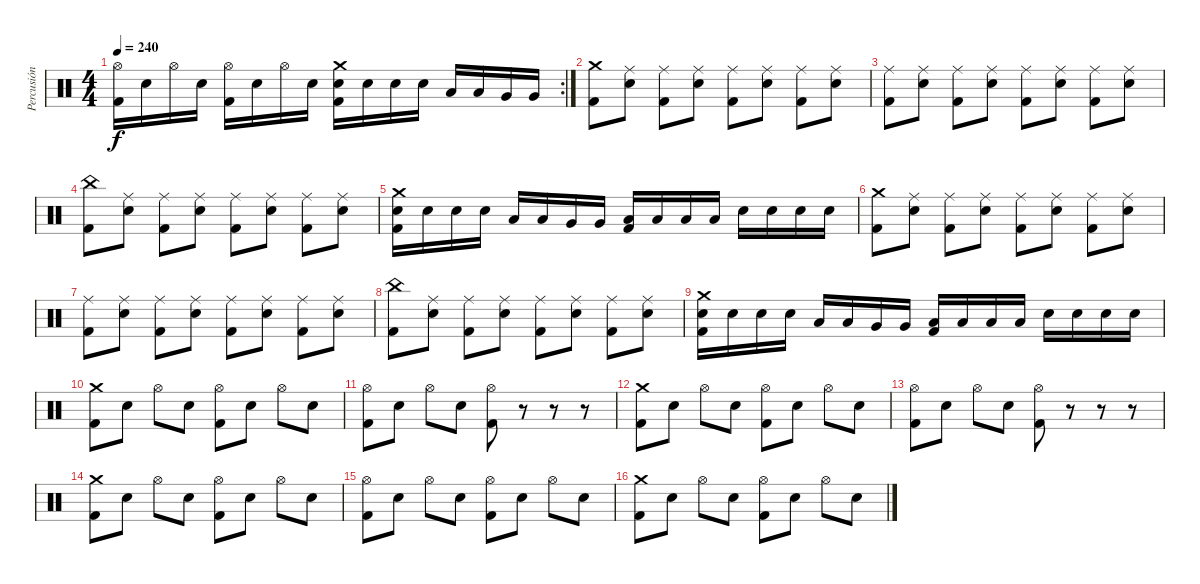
\track ("Percusión" "Percusión") {instrument percussion}
\staff {score}
\articulation defaults
\rc 2
\ts (4 4)
\tempo 240
\clef neutral
\ks c
("Hi-Hat (open)" "Kick (hit) 2").16{dy f} "Electric Snare (hit)".16 "Hi-Hat (open)".16 "Electric Snare (hit)".16 ("Hi-Hat (open)" "Kick (hit) 2").16 "Electric Snare (hit)".16 "Hi-Hat (open)".16 "Electric Snare (hit)".16 ("Crash medium (hit)" "Electric Snare (hit)" "Kick (hit) 2").16 "Electric Snare (hit)".16 "Electric Snare (hit)".16 "Electric Snare (hit)".16 "Low Tom (hit)".16 "Low Tom (hit)".16 "Very Low Tom (hit)".16 "Very Low Tom (hit)".16 |
("Crash medium (hit)" "Kick (hit) 2").8 ("Ride (middle)" "Electric Snare (hit)").8 ("Ride (middle)" "Kick (hit) 2").8 ("Ride (middle)" "Electric Snare (hit)").8 ("Ride (middle)" "Kick (hit) 2").8 ("Ride (middle)" "Electric Snare (hit)").8 ("Ride (middle)" "Kick (hit) 2").8 ("Ride (middle)" "Electric Snare (hit)").8 |
("Ride (middle)" "Kick (hit) 2").8 ("Ride (middle)" "Electric Snare (hit)").8 ("Ride (middle)" "Kick (hit) 2").8 ("Ride (middle)" "Electric Snare (hit)").8 ("Ride (middle)" "Kick (hit) 2").8 ("Ride (middle)" "Electric Snare (hit)").8 ("Ride (middle)" "Kick (hit) 2").8 ("Ride (middle)" "Electric Snare (hit)").8 |
("China (hit)" "Kick (hit) 2").8 ("Ride (middle)" "Electric Snare (hit)").8 ("Ride (middle)" "Kick (hit) 2").8 ("Ride (middle)" "Electric Snare (hit)").8 ("Ride (middle)" "Kick (hit) 2").8 ("Ride (middle)" "Electric Snare (hit)").8 ("Ride (middle)" "Kick (hit) 2").8 ("Ride (middle)" "Electric Snare (hit)").8 |
("Crash medium (hit)" "Electric Snare (hit)" "Kick (hit) 2").16 "Electric Snare (hit)".16 "Electric Snare (hit)".16 "Electric Snare (hit)".16 "Low Tom (hit)".16 "Low Tom (hit)".16 "Very Low Tom (hit)".16 "Very Low Tom (hit)".16 ("Low Tom (hit)" "Kick (hit) 2").16 "Low Tom (hit)".16 "Low Tom (hit)".16 "Low Tom (hit)".16 "Electric Snare (hit)".16 "Electric Snare (hit)".16 "Electric Snare (hit)".16 "Electric Snare (hit)".16 |
("Crash medium (hit)" "Kick (hit) 2").8 ("Ride (middle)" "Electric Snare (hit)").8 ("Ride (middle)" "Kick (hit) 2").8 ("Ride (middle)" "Electric Snare (hit)").8 ("Ride (middle)" "Kick (hit) 2").8 ("Ride (middle)" "Electric Snare (hit)").8 ("Ride (middle)" "Kick (hit) 2").8 ("Ride (middle)" "Electric Snare (hit)").8 |
("Ride (middle)" "Kick (hit) 2").8 ("Ride (middle)" "Electric Snare (hit)").8 ("Ride (middle)" "Kick (hit) 2").8 ("Ride (middle)" "Electric Snare (hit)").8 ("Ride (middle)" "Kick (hit) 2").8 ("Ride (middle)" "Electric Snare (hit)").8 ("Ride (middle)" "Kick (hit) 2").8 ("Ride (middle)" "Electric Snare (hit)").8 |
("China (hit)" "Kick (hit) 2").8 ("Ride (middle)" "Electric Snare (hit)").8 ("Ride (middle)" "Kick (hit) 2").8 ("Ride (middle)" "Electric Snare (hit)").8 ("Ride (middle)" "Kick (hit) 2").8 ("Ride (middle)" "Electric Snare (hit)").8 ("Ride (middle)" "Kick (hit) 2").8 ("Ride (middle)" "Electric Snare (hit)").8 |
("Crash medium (hit)" "Electric Snare (hit)" "Kick (hit) 2").16 "Electric Snare (hit)".16 "Electric Snare (hit)".16 "Electric Snare (hit)".16 "Low Tom (hit)".16 "Low Tom (hit)".16 "Very Low Tom (hit)".16 "Very Low Tom (hit)".16 ("Low Tom (hit)" "Kick (hit) 2").16 "Low Tom (hit)".16 "Low Tom (hit)".16 "Low Tom (hit)".16 "Electric Snare (hit)".16 "Electric Snare (hit)".16 "Electric Snare (hit)".16 "Electric Snare (hit)".16 |
("Crash medium (hit)" "Kick (hit) 2").8 "Electric Snare (hit)".8 "Hi-Hat (open)".8 "Electric Snare (hit)".8 ("Hi-Hat (open)" "Kick (hit) 2").8 "Electric Snare (hit)".8 "Hi-Hat (open)".8 "Electric Snare (hit)".8 |
("Hi-Hat (open)" "Kick (hit) 2").8 "Electric Snare (hit)".8 "Hi-Hat (open)".8 "Electric Snare (hit)".8 ("Hi-Hat (open)" "Kick (hit) 2").8 r.8 r.8 r.8 |
("Crash medium (hit)" "Kick (hit) 2").8 "Electric Snare (hit)".8 "Hi-Hat (open)".8 "Electric Snare (hit)".8 ("Hi-Hat (open)" "Kick (hit) 2").8 "Electric Snare (hit)".8 "Hi-Hat (open)".8 "Electric Snare (hit)".8 |
("Hi-Hat (open)" "Kick (hit) 2").8 "Electric Snare (hit)".8 "Hi-Hat (open)".8 "Electric Snare (hit)".8 ("Hi-Hat (open)" "Kick (hit) 2").8 r.8 r.8 r.8 |
("Crash medium (hit)" "Kick (hit) 2").8 "Electric Snare (hit)".8 "Hi-Hat (open)".8 "Electric Snare (hit)".8 ("Hi-Hat (open)" "Kick (hit) 2").8 "Electric Snare (hit)".8 "Hi-Hat (open)".8 "Electric Snare (hit)".8 |
("Hi-Hat (open)" "Kick (hit) 2").8 "Electric Snare (hit)".8 "Hi-Hat (open)".8 "Electric Snare (hit)".8 ("Hi-Hat (open)" "Kick (hit) 2").8 "Electric Snare (hit)".8 "Hi-Hat (open)".8 "Electric Snare (hit)".8 |
("Crash medium (hit)" "Kick (hit) 2").8 "Electric Snare (hit)".8 "Hi-Hat (open)".8 "Electric Snare (hit)".8 ("Hi-Hat (open)" "Kick (hit) 2").8 "Electric Snare (hit)".8 "Hi-Hat (open)".8 "Electric Snare (hit)".8
